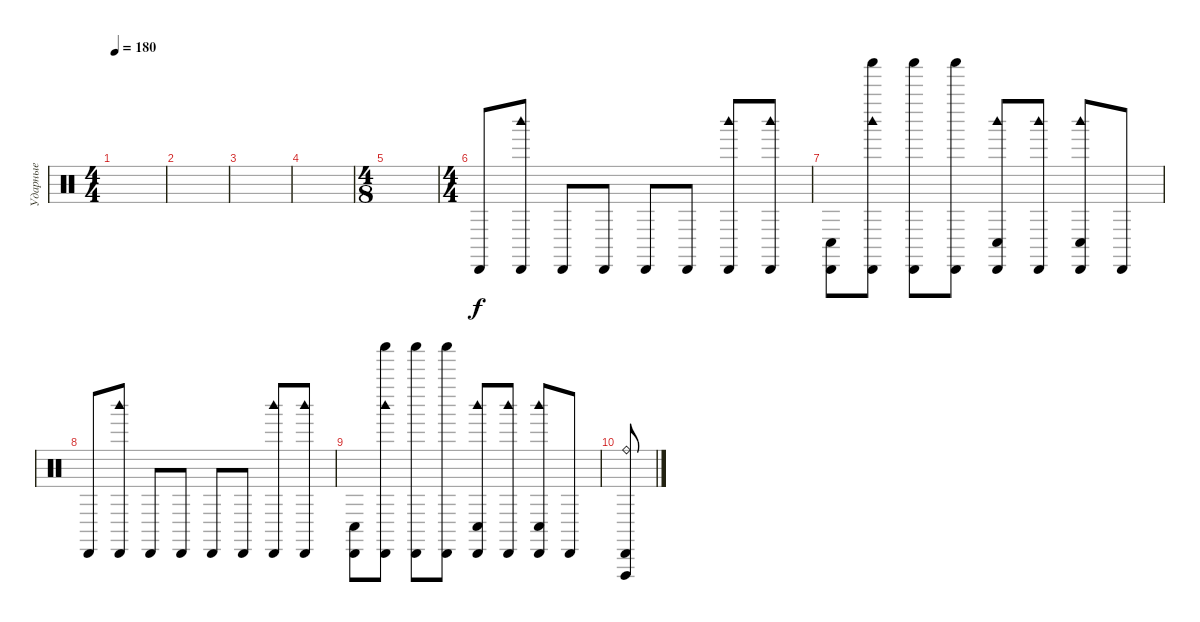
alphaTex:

\track ("Ударные" "Ударные") {instrument percussion}
\staff {score}
\articulation defaults
\ts (4 4)
\tempo 180
\clef neutral
\ks c
|
|
|
|
\ts (4 8)
|
\ts (4 4)
"Cabasa (hit)".8 ("Woodblock high (hit)" "Cabasa (hit)").8 "Cabasa (hit)".8 "Cabasa (hit)".8 "Cabasa (hit)".8 "Cabasa (hit)".8 ("Woodblock high (hit)" "Cabasa (hit)").8 ("Woodblock high (hit)" "Cabasa (hit)").8 |
("Cabasa (hit)" "Conga low (hit)").8 ("Woodblock high (hit)" "Shaker (hit)" "Cabasa (hit)").8 ("Shaker (hit)" "Cabasa (hit)").8 ("Shaker (hit)" "Cabasa (hit)").8 ("Woodblock high (hit)" "Cabasa (hit)" "Conga low (hit)").8 ("Woodblock high (hit)" "Cabasa (hit)").8 ("Woodblock high (hit)" "Cabasa (hit)" "Conga low (hit)").8 "Cabasa (hit)".8 |
"Cabasa (hit)".8 ("Woodblock high (hit)" "Cabasa (hit)").8 "Cabasa (hit)".8 "Cabasa (hit)".8 "Cabasa (hit)".8 "Cabasa (hit)".8 ("Woodblock high (hit)" "Cabasa (hit)").8 ("Woodblock high (hit)" "Cabasa (hit)").8 |
("Cabasa (hit)" "Conga low (hit)").8 ("Woodblock high (hit)" "Shaker (hit)" "Cabasa (hit)").8 ("Shaker (hit)" "Cabasa (hit)").8 ("Shaker (hit)" "Cabasa (hit)").8 ("Woodblock high (hit)" "Cabasa (hit)" "Conga low (hit)").8 ("Woodblock high (hit)" "Cabasa (hit)").8 ("Woodblock high (hit)" "Cabasa (hit)" "Conga low (hit)").8 "Cabasa (hit)".8 |
("Vibraslap (hit)" "Cabasa (hit)" "Ride (bell)").8
